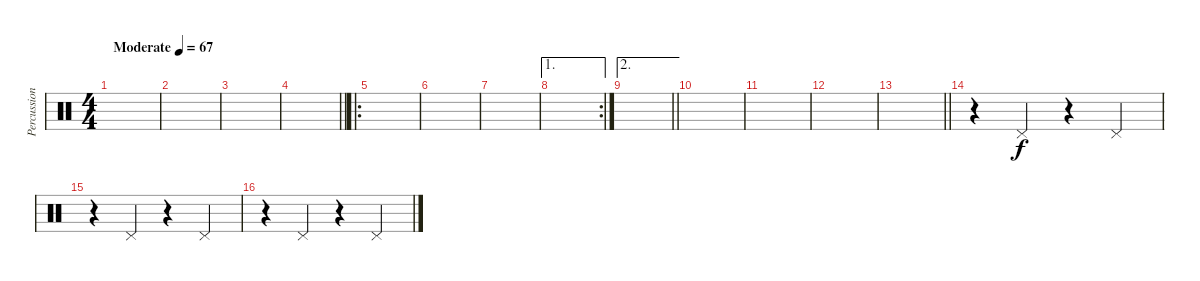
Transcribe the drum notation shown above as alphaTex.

\track ("Percussion" "Percussion") {instrument percussion}
\staff {score}
\articulation defaults
\ts (4 4)
\tempo (67 "Moderate")
\clef neutral
\ks c
|
|
|
\barLineRight lightlight
|
\ro
|
|
|
\ae 1
\rc 2
|
\ae 2
\barLineRight lightlight
|
|
|
|
\barLineRight lightlight
|
r.4 "Pedal Hi-Hat (hit)".4 r.4 "Pedal Hi-Hat (hit)".4 |
r.4 "Pedal Hi-Hat (hit)".4 r.4 "Pedal Hi-Hat (hit)".4 |
r.4 "Pedal Hi-Hat (hit)".4 r.4 "Pedal Hi-Hat (hit)".4
